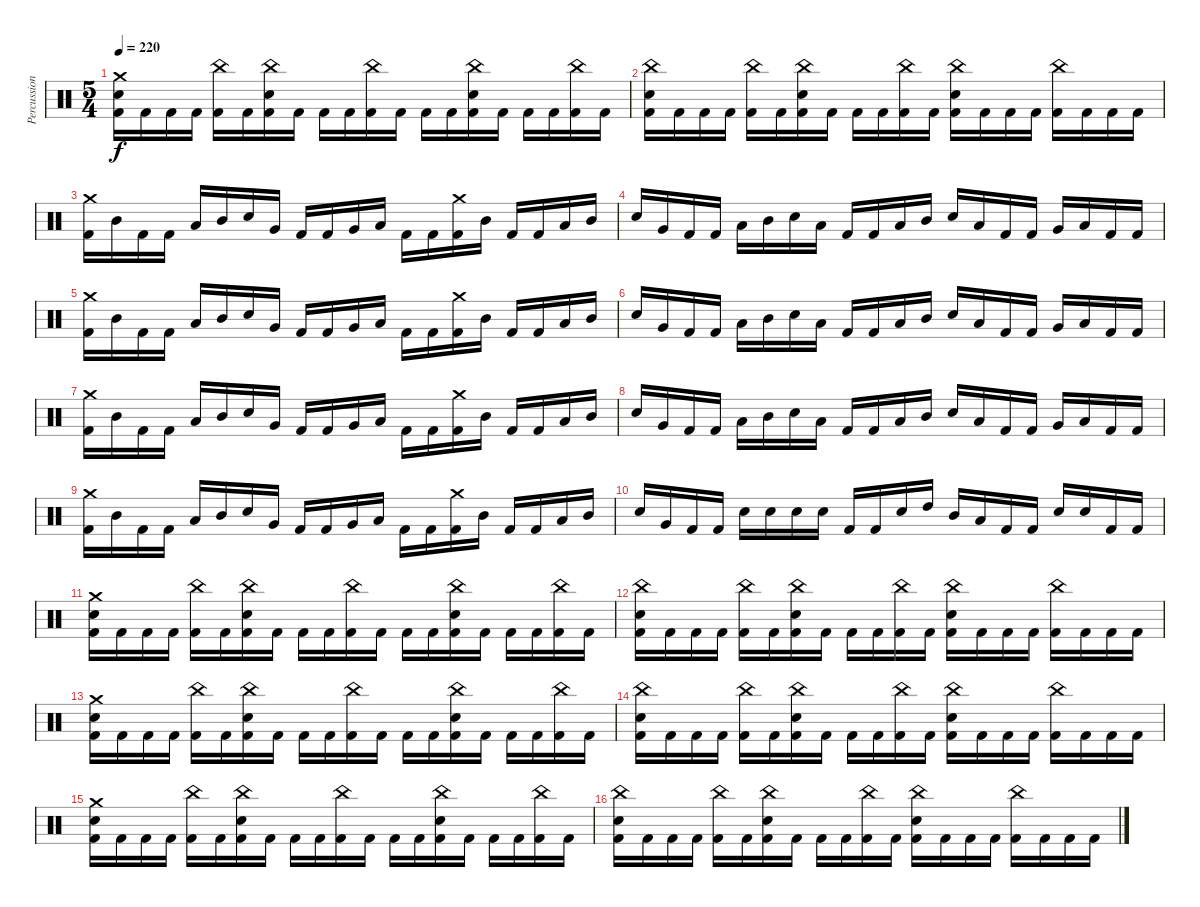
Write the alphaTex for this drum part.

\track ("Percussion" "Percussion") {instrument percussion}
\staff {score}
\articulation defaults
\ts (5 4)
\tempo 220
\clef neutral
\ks c
("Crash medium (hit)" "Electric Snare (hit)" "Kick (hit) 2").16{dy f} "Kick (hit) 2".16 "Kick (hit) 2".16 "Kick (hit) 2".16 ("China (hit)" "Kick (hit) 2").16 "Kick (hit) 2".16 ("China (hit)" "Electric Snare (hit)" "Kick (hit) 2").16 "Kick (hit) 2".16 "Kick (hit) 2".16 "Kick (hit) 2".16 ("China (hit)" "Kick (hit) 2").16 "Kick (hit) 2".16 "Kick (hit) 2".16 "Kick (hit) 2".16 ("China (hit)" "Electric Snare (hit)" "Kick (hit) 2").16 "Kick (hit) 2".16 "Kick (hit) 2".16 "Kick (hit) 2".16 ("China (hit)" "Kick (hit) 2").16 "Kick (hit) 2".16 |
("China (hit)" "Electric Snare (hit)" "Kick (hit) 2").16 "Kick (hit) 2".16 "Kick (hit) 2".16 "Kick (hit) 2".16 ("China (hit)" "Kick (hit) 2").16 "Kick (hit) 2".16 ("China (hit)" "Electric Snare (hit)" "Kick (hit) 2").16 "Kick (hit) 2".16 "Kick (hit) 2".16 "Kick (hit) 2".16 ("China (hit)" "Kick (hit) 2").16 "Kick (hit) 2".16 ("China (hit)" "Electric Snare (hit)" "Kick (hit) 2").16 "Kick (hit) 2".16 "Kick (hit) 2".16 "Kick (hit) 2".16 ("China (hit)" "Kick (hit) 2").16 "Kick (hit) 2".16 "Kick (hit) 2".16 "Kick (hit) 2".16 |
("Crash medium (hit)" "Kick (hit) 2").16 "Mid Tom (hit)".16 "Kick (hit) 2".16 "Kick (hit) 2".16 "Low Tom (hit)".16 "Mid Tom (hit)".16 "Electric Snare (hit)".16 "Very Low Tom (hit)".16 "Kick (hit) 2".16 "Kick (hit) 2".16 "Very Low Tom (hit)".16 "Low Floor Tom (hit)".16 "Kick (hit) 2".16 "Kick (hit) 2".16 ("Crash medium (hit)" "Kick (hit) 2").16 "Mid Tom (hit)".16 "Kick (hit) 2".16 "Kick (hit) 2".16 "Low Tom (hit)".16 "Mid Tom (hit)".16 |
"Electric Snare (hit)".16 "Very Low Tom (hit)".16 "Kick (hit) 2".16 "Kick (hit) 2".16 "Low Tom (hit)".16 "Mid Tom (hit)".16 "Electric Snare (hit)".16 "Low Tom (hit)".16 "Kick (hit) 2".16 "Kick (hit) 2".16 "Low Tom (hit)".16 "Mid Tom (hit)".16 "Electric Snare (hit)".16 "Low Tom (hit)".16 "Kick (hit) 2".16 "Kick (hit) 2".16 "Very Low Tom (hit)".16 "Low Floor Tom (hit)".16 "Kick (hit) 2".16 "Kick (hit) 2".16 |
("Crash medium (hit)" "Kick (hit) 2").16 "Mid Tom (hit)".16 "Kick (hit) 2".16 "Kick (hit) 2".16 "Low Tom (hit)".16 "Mid Tom (hit)".16 "Electric Snare (hit)".16 "Very Low Tom (hit)".16 "Kick (hit) 2".16 "Kick (hit) 2".16 "Very Low Tom (hit)".16 "Low Floor Tom (hit)".16 "Kick (hit) 2".16 "Kick (hit) 2".16 ("Crash medium (hit)" "Kick (hit) 2").16 "Mid Tom (hit)".16 "Kick (hit) 2".16 "Kick (hit) 2".16 "Low Tom (hit)".16 "Mid Tom (hit)".16 |
"Electric Snare (hit)".16 "Very Low Tom (hit)".16 "Kick (hit) 2".16 "Kick (hit) 2".16 "Low Tom (hit)".16 "Mid Tom (hit)".16 "Electric Snare (hit)".16 "Low Tom (hit)".16 "Kick (hit) 2".16 "Kick (hit) 2".16 "Low Tom (hit)".16 "Mid Tom (hit)".16 "Electric Snare (hit)".16 "Low Tom (hit)".16 "Kick (hit) 2".16 "Kick (hit) 2".16 "Very Low Tom (hit)".16 "Low Floor Tom (hit)".16 "Kick (hit) 2".16 "Kick (hit) 2".16 |
("Crash medium (hit)" "Kick (hit) 2").16 "Mid Tom (hit)".16 "Kick (hit) 2".16 "Kick (hit) 2".16 "Low Tom (hit)".16 "Mid Tom (hit)".16 "Electric Snare (hit)".16 "Very Low Tom (hit)".16 "Kick (hit) 2".16 "Kick (hit) 2".16 "Very Low Tom (hit)".16 "Low Floor Tom (hit)".16 "Kick (hit) 2".16 "Kick (hit) 2".16 ("Crash medium (hit)" "Kick (hit) 2").16 "Mid Tom (hit)".16 "Kick (hit) 2".16 "Kick (hit) 2".16 "Low Tom (hit)".16 "Mid Tom (hit)".16 |
"Electric Snare (hit)".16 "Very Low Tom (hit)".16 "Kick (hit) 2".16 "Kick (hit) 2".16 "Low Tom (hit)".16 "Mid Tom (hit)".16 "Electric Snare (hit)".16 "Low Tom (hit)".16 "Kick (hit) 2".16 "Kick (hit) 2".16 "Low Tom (hit)".16 "Mid Tom (hit)".16 "Electric Snare (hit)".16 "Low Tom (hit)".16 "Kick (hit) 2".16 "Kick (hit) 2".16 "Very Low Tom (hit)".16 "Low Floor Tom (hit)".16 "Kick (hit) 2".16 "Kick (hit) 2".16 |
("Crash medium (hit)" "Kick (hit) 2").16 "Mid Tom (hit)".16 "Kick (hit) 2".16 "Kick (hit) 2".16 "Low Tom (hit)".16 "Mid Tom (hit)".16 "Electric Snare (hit)".16 "Very Low Tom (hit)".16 "Kick (hit) 2".16 "Kick (hit) 2".16 "Very Low Tom (hit)".16 "Low Floor Tom (hit)".16 "Kick (hit) 2".16 "Kick (hit) 2".16 ("Crash medium (hit)" "Kick (hit) 2").16 "Mid Tom (hit)".16 "Kick (hit) 2".16 "Kick (hit) 2".16 "Low Tom (hit)".16 "Mid Tom (hit)".16 |
"Electric Snare (hit)".16 "Very Low Tom (hit)".16 "Kick (hit) 2".16 "Kick (hit) 2".16 "Electric Snare (hit)".16 "Electric Snare (hit)".16 "Electric Snare (hit)".16 "Electric Snare (hit)".16 "Kick (hit) 2".16 "Kick (hit) 2".16 "Electric Snare (hit)".16 "High Tom (hit)".16 "Mid Tom (hit)".16 "Low Tom (hit)".16 "Kick (hit) 2".16 "Kick (hit) 2".16 "Electric Snare (hit)".16 "Electric Snare (hit)".16 "Kick (hit) 2".16 "Kick (hit) 2".16 |
("Crash medium (hit)" "Electric Snare (hit)" "Kick (hit) 2").16 "Kick (hit) 2".16 "Kick (hit) 2".16 "Kick (hit) 2".16 ("China (hit)" "Kick (hit) 2").16 "Kick (hit) 2".16 ("China (hit)" "Electric Snare (hit)" "Kick (hit) 2").16 "Kick (hit) 2".16 "Kick (hit) 2".16 "Kick (hit) 2".16 ("China (hit)" "Kick (hit) 2").16 "Kick (hit) 2".16 "Kick (hit) 2".16 "Kick (hit) 2".16 ("China (hit)" "Electric Snare (hit)" "Kick (hit) 2").16 "Kick (hit) 2".16 "Kick (hit) 2".16 "Kick (hit) 2".16 ("China (hit)" "Kick (hit) 2").16 "Kick (hit) 2".16 |
("China (hit)" "Electric Snare (hit)" "Kick (hit) 2").16 "Kick (hit) 2".16 "Kick (hit) 2".16 "Kick (hit) 2".16 ("China (hit)" "Kick (hit) 2").16 "Kick (hit) 2".16 ("China (hit)" "Electric Snare (hit)" "Kick (hit) 2").16 "Kick (hit) 2".16 "Kick (hit) 2".16 "Kick (hit) 2".16 ("China (hit)" "Kick (hit) 2").16 "Kick (hit) 2".16 ("China (hit)" "Electric Snare (hit)" "Kick (hit) 2").16 "Kick (hit) 2".16 "Kick (hit) 2".16 "Kick (hit) 2".16 ("China (hit)" "Kick (hit) 2").16 "Kick (hit) 2".16 "Kick (hit) 2".16 "Kick (hit) 2".16 |
("Crash medium (hit)" "Electric Snare (hit)" "Kick (hit) 2").16 "Kick (hit) 2".16 "Kick (hit) 2".16 "Kick (hit) 2".16 ("China (hit)" "Kick (hit) 2").16 "Kick (hit) 2".16 ("China (hit)" "Electric Snare (hit)" "Kick (hit) 2").16 "Kick (hit) 2".16 "Kick (hit) 2".16 "Kick (hit) 2".16 ("China (hit)" "Kick (hit) 2").16 "Kick (hit) 2".16 "Kick (hit) 2".16 "Kick (hit) 2".16 ("China (hit)" "Electric Snare (hit)" "Kick (hit) 2").16 "Kick (hit) 2".16 "Kick (hit) 2".16 "Kick (hit) 2".16 ("China (hit)" "Kick (hit) 2").16 "Kick (hit) 2".16 |
("China (hit)" "Electric Snare (hit)" "Kick (hit) 2").16 "Kick (hit) 2".16 "Kick (hit) 2".16 "Kick (hit) 2".16 ("China (hit)" "Kick (hit) 2").16 "Kick (hit) 2".16 ("China (hit)" "Electric Snare (hit)" "Kick (hit) 2").16 "Kick (hit) 2".16 "Kick (hit) 2".16 "Kick (hit) 2".16 ("China (hit)" "Kick (hit) 2").16 "Kick (hit) 2".16 ("China (hit)" "Electric Snare (hit)" "Kick (hit) 2").16 "Kick (hit) 2".16 "Kick (hit) 2".16 "Kick (hit) 2".16 ("China (hit)" "Kick (hit) 2").16 "Kick (hit) 2".16 "Kick (hit) 2".16 "Kick (hit) 2".16 |
("Crash medium (hit)" "Electric Snare (hit)" "Kick (hit) 2").16 "Kick (hit) 2".16 "Kick (hit) 2".16 "Kick (hit) 2".16 ("China (hit)" "Kick (hit) 2").16 "Kick (hit) 2".16 ("China (hit)" "Electric Snare (hit)" "Kick (hit) 2").16 "Kick (hit) 2".16 "Kick (hit) 2".16 "Kick (hit) 2".16 ("China (hit)" "Kick (hit) 2").16 "Kick (hit) 2".16 "Kick (hit) 2".16 "Kick (hit) 2".16 ("China (hit)" "Electric Snare (hit)" "Kick (hit) 2").16 "Kick (hit) 2".16 "Kick (hit) 2".16 "Kick (hit) 2".16 ("China (hit)" "Kick (hit) 2").16 "Kick (hit) 2".16 |
("China (hit)" "Electric Snare (hit)" "Kick (hit) 2").16 "Kick (hit) 2".16 "Kick (hit) 2".16 "Kick (hit) 2".16 ("China (hit)" "Kick (hit) 2").16 "Kick (hit) 2".16 ("China (hit)" "Electric Snare (hit)" "Kick (hit) 2").16 "Kick (hit) 2".16 "Kick (hit) 2".16 "Kick (hit) 2".16 ("China (hit)" "Kick (hit) 2").16 "Kick (hit) 2".16 ("China (hit)" "Electric Snare (hit)" "Kick (hit) 2").16 "Kick (hit) 2".16 "Kick (hit) 2".16 "Kick (hit) 2".16 ("China (hit)" "Kick (hit) 2").16 "Kick (hit) 2".16 "Kick (hit) 2".16 "Kick (hit) 2".16
